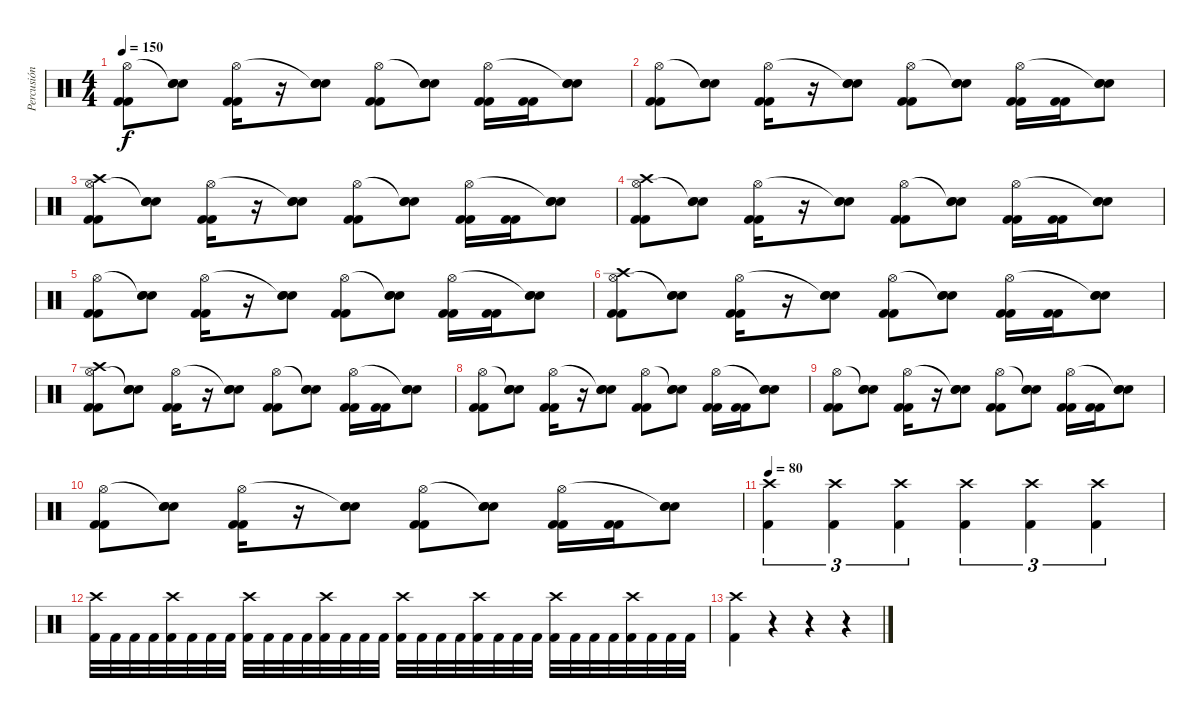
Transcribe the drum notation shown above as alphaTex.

\track ("Percusión" "Percusión") {instrument percussion}
\staff {score}
\articulation defaults
\ts (4 4)
\tempo 150
\clef neutral
\ks c
("Kick (hit) 2" "Kick (hit) 2" "Hi-Hat (open)").8{dy f} ("Snare (hit) 2" "Snare (hit) 2" "Snare (hit)"{t}).8 ("Kick (hit) 2" "Kick (hit) 2" "Hi-Hat (open)").16 r.16 ("Snare (hit) 2" "Snare (hit) 2" "Snare (hit)"{t}).8 ("Kick (hit) 2" "Kick (hit) 2" "Hi-Hat (open)").8 ("Snare (hit) 2" "Snare (hit) 2" "Snare (hit)"{t}).8 ("Kick (hit) 2" "Kick (hit) 2" "Hi-Hat (open)").16 ("Kick (hit) 2" "Kick (hit) 2").16 ("Snare (hit) 2" "Snare (hit) 2" "Snare (hit)"{t}).8 |
("Kick (hit) 2" "Kick (hit) 2" "Hi-Hat (open)").8 ("Snare (hit) 2" "Snare (hit) 2" "Snare (hit)"{t}).8 ("Kick (hit) 2" "Kick (hit) 2" "Hi-Hat (open)").16 r.16 ("Snare (hit) 2" "Snare (hit) 2" "Snare (hit)"{t}).8 ("Kick (hit) 2" "Kick (hit) 2" "Hi-Hat (open)").8 ("Snare (hit) 2" "Snare (hit) 2" "Snare (hit)"{t}).8 ("Kick (hit) 2" "Kick (hit) 2" "Hi-Hat (open)").16 ("Kick (hit) 2" "Kick (hit) 2").16 ("Snare (hit) 2" "Snare (hit) 2" "Snare (hit)"{t}).8 |
("Kick (hit) 2" "Kick (hit) 2" "Hi-Hat (open)" "Crash high (hit)").8 ("Snare (hit) 2" "Snare (hit) 2" "Snare (hit)"{t}).8 ("Kick (hit) 2" "Kick (hit) 2" "Hi-Hat (open)").16 r.16 ("Snare (hit) 2" "Snare (hit) 2" "Snare (hit)"{t}).8 ("Kick (hit) 2" "Kick (hit) 2" "Hi-Hat (open)").8 ("Snare (hit) 2" "Snare (hit) 2" "Snare (hit)"{t}).8 ("Kick (hit) 2" "Kick (hit) 2" "Hi-Hat (open)").16 ("Kick (hit) 2" "Kick (hit) 2").16 ("Snare (hit) 2" "Snare (hit) 2" "Snare (hit)"{t}).8 |
("Kick (hit) 2" "Kick (hit) 2" "Hi-Hat (open)" "Crash high (hit)").8 ("Snare (hit) 2" "Snare (hit) 2" "Snare (hit)"{t}).8 ("Kick (hit) 2" "Kick (hit) 2" "Hi-Hat (open)").16 r.16 ("Snare (hit) 2" "Snare (hit) 2" "Snare (hit)"{t}).8 ("Kick (hit) 2" "Kick (hit) 2" "Hi-Hat (open)").8 ("Snare (hit) 2" "Snare (hit) 2" "Snare (hit)"{t}).8 ("Kick (hit) 2" "Kick (hit) 2" "Hi-Hat (open)").16 ("Kick (hit) 2" "Kick (hit) 2").16 ("Snare (hit) 2" "Snare (hit) 2" "Snare (hit)"{t}).8 |
("Kick (hit) 2" "Kick (hit) 2" "Hi-Hat (open)").8 ("Snare (hit) 2" "Snare (hit) 2" "Snare (hit)"{t}).8 ("Kick (hit) 2" "Kick (hit) 2" "Hi-Hat (open)").16 r.16 ("Snare (hit) 2" "Snare (hit) 2" "Snare (hit)"{t}).8 ("Kick (hit) 2" "Kick (hit) 2" "Hi-Hat (open)").8 ("Snare (hit) 2" "Snare (hit) 2" "Snare (hit)"{t}).8 ("Kick (hit) 2" "Kick (hit) 2" "Hi-Hat (open)").16 ("Kick (hit) 2" "Kick (hit) 2").16 ("Snare (hit) 2" "Snare (hit) 2" "Snare (hit)"{t}).8 |
("Kick (hit) 2" "Kick (hit) 2" "Hi-Hat (open)" "Crash high (hit)").8 ("Snare (hit) 2" "Snare (hit) 2" "Snare (hit)"{t}).8 ("Kick (hit) 2" "Kick (hit) 2" "Hi-Hat (open)").16 r.16 ("Snare (hit) 2" "Snare (hit) 2" "Snare (hit)"{t}).8 ("Kick (hit) 2" "Kick (hit) 2" "Hi-Hat (open)").8 ("Snare (hit) 2" "Snare (hit) 2" "Snare (hit)"{t}).8 ("Kick (hit) 2" "Kick (hit) 2" "Hi-Hat (open)").16 ("Kick (hit) 2" "Kick (hit) 2").16 ("Snare (hit) 2" "Snare (hit) 2" "Snare (hit)"{t}).8 |
("Kick (hit) 2" "Kick (hit) 2" "Hi-Hat (open)" "Crash high (hit)").8 ("Snare (hit) 2" "Snare (hit) 2" "Snare (hit)"{t}).8 ("Kick (hit) 2" "Kick (hit) 2" "Hi-Hat (open)").16 r.16 ("Snare (hit) 2" "Snare (hit) 2" "Snare (hit)"{t}).8 ("Kick (hit) 2" "Kick (hit) 2" "Hi-Hat (open)").8 ("Snare (hit) 2" "Snare (hit) 2" "Snare (hit)"{t}).8 ("Kick (hit) 2" "Kick (hit) 2" "Hi-Hat (open)").16 ("Kick (hit) 2" "Kick (hit) 2").16 ("Snare (hit) 2" "Snare (hit) 2" "Snare (hit)"{t}).8 |
("Kick (hit) 2" "Kick (hit) 2" "Hi-Hat (open)").8 ("Snare (hit) 2" "Snare (hit) 2" "Snare (hit)"{t}).8 ("Kick (hit) 2" "Kick (hit) 2" "Hi-Hat (open)").16 r.16 ("Snare (hit) 2" "Snare (hit) 2" "Snare (hit)"{t}).8 ("Kick (hit) 2" "Kick (hit) 2" "Hi-Hat (open)").8 ("Snare (hit) 2" "Snare (hit) 2" "Snare (hit)"{t}).8 ("Kick (hit) 2" "Kick (hit) 2" "Hi-Hat (open)").16 ("Kick (hit) 2" "Kick (hit) 2").16 ("Snare (hit) 2" "Snare (hit) 2" "Snare (hit)"{t}).8 |
("Kick (hit) 2" "Kick (hit) 2" "Hi-Hat (open)").8 ("Snare (hit) 2" "Snare (hit) 2" "Snare (hit)"{t}).8 ("Kick (hit) 2" "Kick (hit) 2" "Hi-Hat (open)").16 r.16 ("Snare (hit) 2" "Snare (hit) 2" "Snare (hit)"{t}).8 ("Kick (hit) 2" "Kick (hit) 2" "Hi-Hat (open)").8 ("Snare (hit) 2" "Snare (hit) 2" "Snare (hit)"{t}).8 ("Kick (hit) 2" "Kick (hit) 2" "Hi-Hat (open)").16 ("Kick (hit) 2" "Kick (hit) 2").16 ("Snare (hit) 2" "Snare (hit) 2" "Snare (hit)"{t}).8 |
("Kick (hit) 2" "Kick (hit) 2" "Hi-Hat (open)").8 ("Snare (hit) 2" "Snare (hit) 2" "Snare (hit)"{t}).8 ("Kick (hit) 2" "Kick (hit) 2" "Hi-Hat (open)").16 r.16 ("Snare (hit) 2" "Snare (hit) 2" "Snare (hit)"{t}).8 ("Kick (hit) 2" "Kick (hit) 2" "Hi-Hat (open)").8 ("Snare (hit) 2" "Snare (hit) 2" "Snare (hit)"{t}).8 ("Kick (hit) 2" "Kick (hit) 2" "Hi-Hat (open)").16 ("Kick (hit) 2" "Kick (hit) 2").16 ("Snare (hit) 2" "Snare (hit) 2" "Snare (hit)"{t}).8 |
\tempo 80
("Kick (hit) 2" "Crash high (hit)").4{tu (3 2)} ("Kick (hit) 2" "Crash high (hit)").4{tu (3 2)} ("Kick (hit) 2" "Crash high (hit)").4{tu (3 2)} ("Kick (hit) 2" "Crash high (hit)").4{tu (3 2)} ("Kick (hit) 2" "Crash high (hit)").4{tu (3 2)} ("Kick (hit) 2" "Crash high (hit)").4{tu (3 2)} |
("Kick (hit) 2" "Crash high (hit)").32 "Kick (hit) 2".32 "Kick (hit) 2".32 "Kick (hit) 2".32 ("Kick (hit) 2" "Crash high (hit)").32 "Kick (hit) 2".32 "Kick (hit) 2".32 "Kick (hit) 2".32 ("Kick (hit) 2" "Crash high (hit)").32 "Kick (hit) 2".32 "Kick (hit) 2".32 "Kick (hit) 2".32 ("Kick (hit) 2" "Crash high (hit)").32 "Kick (hit) 2".32 "Kick (hit) 2".32 "Kick (hit) 2".32 ("Kick (hit) 2" "Crash high (hit)").32 "Kick (hit) 2".32 "Kick (hit) 2".32 "Kick (hit) 2".32 ("Kick (hit) 2" "Crash high (hit)").32 "Kick (hit) 2".32 "Kick (hit) 2".32 "Kick (hit) 2".32 ("Kick (hit) 2" "Crash high (hit)").32 "Kick (hit) 2".32 "Kick (hit) 2".32 "Kick (hit) 2".32 ("Kick (hit) 2" "Crash high (hit)").32 "Kick (hit) 2".32 "Kick (hit) 2".32 "Kick (hit) 2".32 |
("Kick (hit) 2" "Crash high (hit)").4 r.4 r.4 r.4
